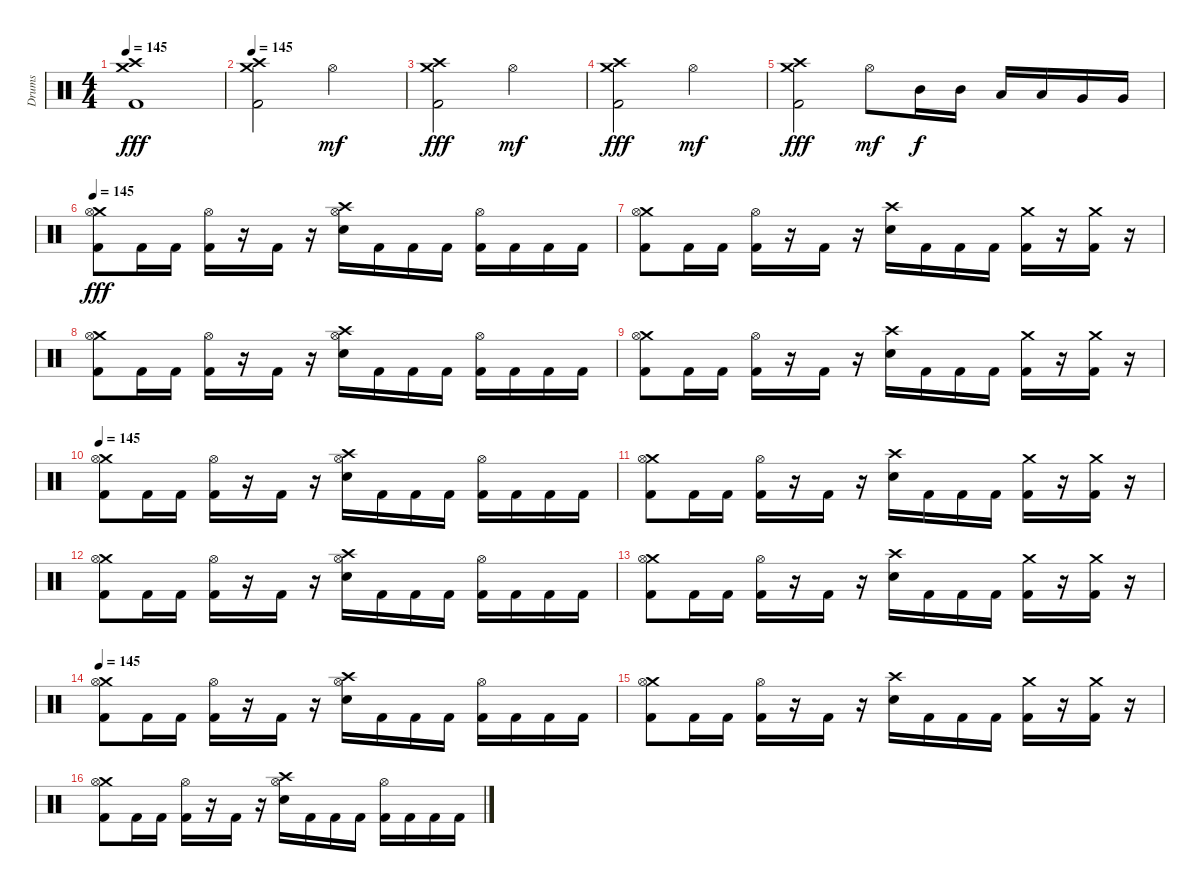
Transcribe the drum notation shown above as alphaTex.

\track ("Drums" "Drums") {instrument percussion}
\staff {score}
\articulation defaults
\ts (4 4)
\tempo 145
\clef neutral
\ks c
("Crash medium (hit)" "Crash high (hit)" "Kick (hit) 2").1{dy fff} |
\tempo 145
("Crash medium (hit)" "Crash high (hit)" "Kick (hit) 2").2 "Hi-Hat (open)".2{dy mf} |
("Crash medium (hit)" "Crash high (hit)" "Kick (hit) 2").2{dy fff} "Hi-Hat (open)".2{dy mf} |
("Crash medium (hit)" "Crash high (hit)" "Kick (hit) 2").2{dy fff} "Hi-Hat (open)".2{dy mf} |
("Crash medium (hit)" "Crash high (hit)" "Kick (hit) 2").2{dy fff} "Hi-Hat (open)".8{dy mf} "Mid Tom (hit)".16{dy f} "Mid Tom (hit)".16 "Low Tom (hit)".16 "Low Tom (hit)".16 "Very Low Tom (hit)".16 "Very Low Tom (hit)".16 |
\tempo 145
("Crash medium (hit)" "Hi-Hat (open)" "Kick (hit) 2").8{dy fff} "Kick (hit) 2".16 "Kick (hit) 2".16 ("Hi-Hat (open)" "Kick (hit) 2").16 r.16 "Kick (hit) 2".16 r.16 ("Crash high (hit)" "Hi-Hat (open)" "Snare (hit) 2").16 "Kick (hit) 2".16 "Kick (hit) 2".16 "Kick (hit) 2".16 ("Hi-Hat (open)" "Kick (hit) 2").16 "Kick (hit) 2".16 "Kick (hit) 2".16 "Kick (hit) 2".16 |
("Crash medium (hit)" "Hi-Hat (open)" "Kick (hit) 2").8 "Kick (hit) 2".16 "Kick (hit) 2".16 ("Hi-Hat (open)" "Kick (hit) 2").16 r.16 "Kick (hit) 2".16 r.16 ("Crash high (hit)" "Snare (hit) 2").16 "Kick (hit) 2".16 "Kick (hit) 2".16 "Kick (hit) 2".16 ("Crash medium (hit)" "Kick (hit) 2").16 r.16 ("Crash medium (hit)" "Kick (hit) 2").16 r.16 |
("Crash medium (hit)" "Hi-Hat (open)" "Kick (hit) 2").8 "Kick (hit) 2".16 "Kick (hit) 2".16 ("Hi-Hat (open)" "Kick (hit) 2").16 r.16 "Kick (hit) 2".16 r.16 ("Crash high (hit)" "Hi-Hat (open)" "Snare (hit) 2").16 "Kick (hit) 2".16 "Kick (hit) 2".16 "Kick (hit) 2".16 ("Hi-Hat (open)" "Kick (hit) 2").16 "Kick (hit) 2".16 "Kick (hit) 2".16 "Kick (hit) 2".16 |
("Crash medium (hit)" "Hi-Hat (open)" "Kick (hit) 2").8 "Kick (hit) 2".16 "Kick (hit) 2".16 ("Hi-Hat (open)" "Kick (hit) 2").16 r.16 "Kick (hit) 2".16 r.16 ("Crash high (hit)" "Snare (hit) 2").16 "Kick (hit) 2".16 "Kick (hit) 2".16 "Kick (hit) 2".16 ("Crash medium (hit)" "Kick (hit) 2").16 r.16 ("Crash medium (hit)" "Kick (hit) 2").16 r.16 |
\tempo 145
("Crash medium (hit)" "Hi-Hat (open)" "Kick (hit) 2").8 "Kick (hit) 2".16 "Kick (hit) 2".16 ("Hi-Hat (open)" "Kick (hit) 2").16 r.16 "Kick (hit) 2".16 r.16 ("Crash high (hit)" "Hi-Hat (open)" "Snare (hit) 2").16 "Kick (hit) 2".16 "Kick (hit) 2".16 "Kick (hit) 2".16 ("Hi-Hat (open)" "Kick (hit) 2").16 "Kick (hit) 2".16 "Kick (hit) 2".16 "Kick (hit) 2".16 |
("Crash medium (hit)" "Hi-Hat (open)" "Kick (hit) 2").8 "Kick (hit) 2".16 "Kick (hit) 2".16 ("Hi-Hat (open)" "Kick (hit) 2").16 r.16 "Kick (hit) 2".16 r.16 ("Crash high (hit)" "Snare (hit) 2").16 "Kick (hit) 2".16 "Kick (hit) 2".16 "Kick (hit) 2".16 ("Crash medium (hit)" "Kick (hit) 2").16 r.16 ("Crash medium (hit)" "Kick (hit) 2").16 r.16 |
("Crash medium (hit)" "Hi-Hat (open)" "Kick (hit) 2").8 "Kick (hit) 2".16 "Kick (hit) 2".16 ("Hi-Hat (open)" "Kick (hit) 2").16 r.16 "Kick (hit) 2".16 r.16 ("Crash high (hit)" "Hi-Hat (open)" "Snare (hit) 2").16 "Kick (hit) 2".16 "Kick (hit) 2".16 "Kick (hit) 2".16 ("Hi-Hat (open)" "Kick (hit) 2").16 "Kick (hit) 2".16 "Kick (hit) 2".16 "Kick (hit) 2".16 |
("Crash medium (hit)" "Hi-Hat (open)" "Kick (hit) 2").8 "Kick (hit) 2".16 "Kick (hit) 2".16 ("Hi-Hat (open)" "Kick (hit) 2").16 r.16 "Kick (hit) 2".16 r.16 ("Crash high (hit)" "Snare (hit) 2").16 "Kick (hit) 2".16 "Kick (hit) 2".16 "Kick (hit) 2".16 ("Crash medium (hit)" "Kick (hit) 2").16 r.16 ("Crash medium (hit)" "Kick (hit) 2").16 r.16 |
\tempo 145
("Crash medium (hit)" "Hi-Hat (open)" "Kick (hit) 2").8 "Kick (hit) 2".16 "Kick (hit) 2".16 ("Hi-Hat (open)" "Kick (hit) 2").16 r.16 "Kick (hit) 2".16 r.16 ("Crash high (hit)" "Hi-Hat (open)" "Snare (hit) 2").16 "Kick (hit) 2".16 "Kick (hit) 2".16 "Kick (hit) 2".16 ("Hi-Hat (open)" "Kick (hit) 2").16 "Kick (hit) 2".16 "Kick (hit) 2".16 "Kick (hit) 2".16 |
("Crash medium (hit)" "Hi-Hat (open)" "Kick (hit) 2").8 "Kick (hit) 2".16 "Kick (hit) 2".16 ("Hi-Hat (open)" "Kick (hit) 2").16 r.16 "Kick (hit) 2".16 r.16 ("Crash high (hit)" "Snare (hit) 2").16 "Kick (hit) 2".16 "Kick (hit) 2".16 "Kick (hit) 2".16 ("Crash medium (hit)" "Kick (hit) 2").16 r.16 ("Crash medium (hit)" "Kick (hit) 2").16 r.16 |
("Crash medium (hit)" "Hi-Hat (open)" "Kick (hit) 2").8 "Kick (hit) 2".16 "Kick (hit) 2".16 ("Hi-Hat (open)" "Kick (hit) 2").16 r.16 "Kick (hit) 2".16 r.16 ("Crash high (hit)" "Hi-Hat (open)" "Snare (hit) 2").16 "Kick (hit) 2".16 "Kick (hit) 2".16 "Kick (hit) 2".16 ("Hi-Hat (open)" "Kick (hit) 2").16 "Kick (hit) 2".16 "Kick (hit) 2".16 "Kick (hit) 2".16
